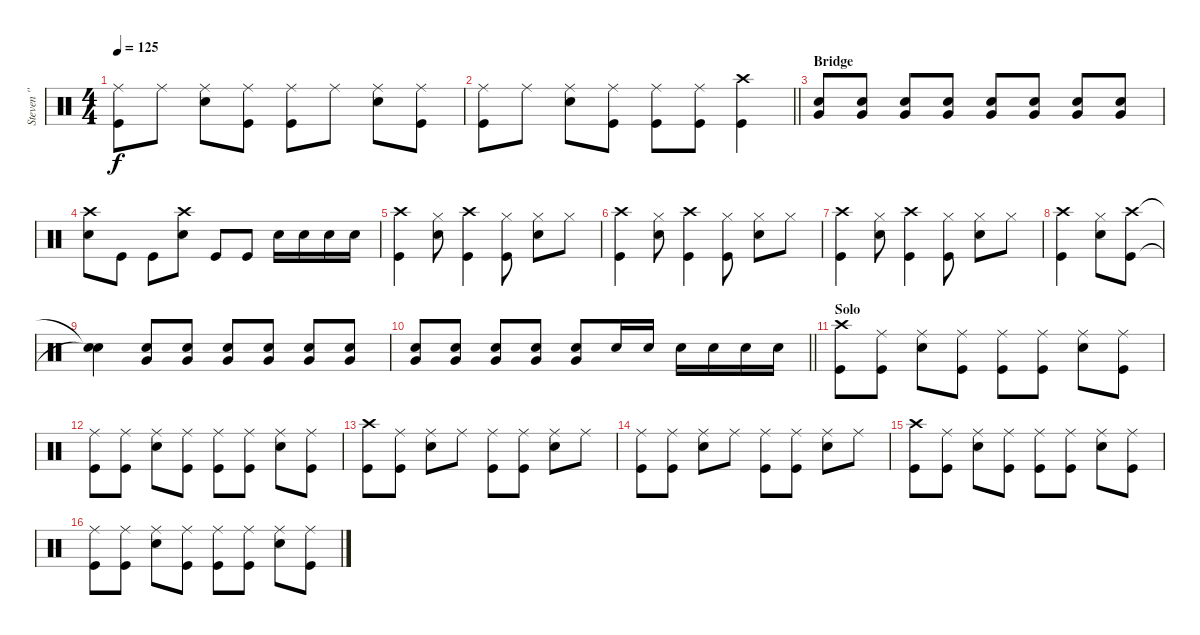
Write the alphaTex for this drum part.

\track ("Steven '' Popcorn '' Adler" "Steven '' ") {instrument percussion}
\staff {score}
\articulation defaults
\ts (4 4)
\tempo 125
\clef neutral
\ks c
("Ride (middle)" "Kick (hit)").8{dy f} "Ride (middle)".8 ("Ride (middle)" "Snare (hit) 2").8 ("Ride (middle)" "Kick (hit)").8 ("Ride (middle)" "Kick (hit)").8 "Ride (middle)".8 ("Ride (middle)" "Snare (hit) 2").8 ("Ride (middle)" "Kick (hit)").8 |
\barLineRight lightlight
("Ride (middle)" "Kick (hit)").8 "Ride (middle)".8 ("Ride (middle)" "Snare (hit) 2").8 ("Ride (middle)" "Kick (hit)").8 ("Ride (middle)" "Kick (hit)").8 ("Ride (middle)" "Kick (hit)").8 ("Crash high (hit)" "Kick (hit)").4 |
\section ("" "Bridge")
("Snare (hit) 2" "Very Low Tom (hit)").8 ("Snare (hit) 2" "Very Low Tom (hit)").8 ("Snare (hit) 2" "Very Low Tom (hit)").8 ("Snare (hit) 2" "Very Low Tom (hit)").8 ("Snare (hit) 2" "Very Low Tom (hit)").8 ("Snare (hit) 2" "Very Low Tom (hit)").8 ("Snare (hit) 2" "Very Low Tom (hit)").8 ("Snare (hit) 2" "Very Low Tom (hit)").8 |
("Crash high (hit)" "Snare (hit) 2").8 "Kick (hit)".8 "Kick (hit)".8 ("Crash high (hit)" "Snare (hit) 2").8 "Kick (hit)".8 "Kick (hit)".8 "Snare (hit) 2".16 "Snare (hit) 2".16 "Snare (hit) 2".16 "Snare (hit) 2".16 |
("Crash high (hit)" "Kick (hit)").4 ("Hi-Hat (closed)" "Snare (hit) 2").8 ("Crash high (hit)" "Kick (hit)").4 ("Hi-Hat (closed)" "Kick (hit)").8 ("Hi-Hat (closed)" "Snare (hit) 2").8 "Hi-Hat (closed)".8 |
("Crash high (hit)" "Kick (hit)").4 ("Hi-Hat (closed)" "Snare (hit) 2").8 ("Crash high (hit)" "Kick (hit)").4 ("Hi-Hat (closed)" "Kick (hit)").8 ("Hi-Hat (closed)" "Snare (hit) 2").8 "Hi-Hat (closed)".8 |
("Crash high (hit)" "Kick (hit)").4 ("Hi-Hat (closed)" "Snare (hit) 2").8 ("Crash high (hit)" "Kick (hit)").4 ("Hi-Hat (closed)" "Kick (hit)").8 ("Hi-Hat (closed)" "Snare (hit) 2").8 "Hi-Hat (closed)".8 |
("Crash high (hit)" "Kick (hit)").4 ("Hi-Hat (closed)" "Snare (hit) 2").8 ("Crash high (hit)" "Kick (hit)").8 |
("Snare (hit)"{t} "Snare (hit)"{t}).4 ("Snare (hit) 2" "Very Low Tom (hit)").8 ("Snare (hit) 2" "Very Low Tom (hit)").8 ("Snare (hit) 2" "Very Low Tom (hit)").8 ("Snare (hit) 2" "Very Low Tom (hit)").8 ("Snare (hit) 2" "Very Low Tom (hit)").8 ("Snare (hit) 2" "Very Low Tom (hit)").8 |
\barLineRight lightlight
("Snare (hit) 2" "Very Low Tom (hit)").8 ("Snare (hit) 2" "Very Low Tom (hit)").8 ("Snare (hit) 2" "Very Low Tom (hit)").8 ("Snare (hit) 2" "Very Low Tom (hit)").8 ("Snare (hit) 2" "Very Low Tom (hit)").8 "Snare (hit) 2".16 "Snare (hit) 2".16 "Snare (hit) 2".16 "Snare (hit) 2".16 "Snare (hit) 2".16 "Snare (hit) 2".16 |
\section ("" "Solo")
("Crash high (hit)" "Kick (hit)").8 ("Ride (middle)" "Kick (hit)").8 ("Ride (middle)" "Snare (hit) 2").8 ("Ride (middle)" "Kick (hit)").8 ("Ride (middle)" "Kick (hit)").8 ("Ride (middle)" "Kick (hit)").8 ("Ride (middle)" "Snare (hit) 2").8 ("Ride (middle)" "Kick (hit)").8 |
("Ride (middle)" "Kick (hit)").8 ("Ride (middle)" "Kick (hit)").8 ("Ride (middle)" "Snare (hit) 2").8 ("Ride (middle)" "Kick (hit)").8 ("Ride (middle)" "Kick (hit)").8 ("Ride (middle)" "Kick (hit)").8 ("Ride (middle)" "Snare (hit) 2").8 ("Ride (middle)" "Kick (hit)").8 |
("Crash high (hit)" "Kick (hit)").8 ("Ride (middle)" "Kick (hit)").8 ("Ride (middle)" "Snare (hit) 2").8 "Ride (middle)".8 ("Ride (middle)" "Kick (hit)").8 ("Ride (middle)" "Kick (hit)").8 ("Ride (middle)" "Snare (hit) 2").8 "Ride (middle)".8 |
("Ride (middle)" "Kick (hit)").8 ("Ride (middle)" "Kick (hit)").8 ("Ride (middle)" "Snare (hit) 2").8 "Ride (middle)".8 ("Ride (middle)" "Kick (hit)").8 ("Ride (middle)" "Kick (hit)").8 ("Ride (middle)" "Snare (hit) 2").8 "Ride (middle)".8 |
("Crash high (hit)" "Kick (hit)").8 ("Ride (middle)" "Kick (hit)").8 ("Ride (middle)" "Snare (hit) 2").8 ("Ride (middle)" "Kick (hit)").8 ("Ride (middle)" "Kick (hit)").8 ("Ride (middle)" "Kick (hit)").8 ("Ride (middle)" "Snare (hit) 2").8 ("Ride (middle)" "Kick (hit)").8 |
("Ride (middle)" "Kick (hit)").8 ("Ride (middle)" "Kick (hit)").8 ("Ride (middle)" "Snare (hit) 2").8 ("Ride (middle)" "Kick (hit)").8 ("Ride (middle)" "Kick (hit)").8 ("Ride (middle)" "Kick (hit)").8 ("Ride (middle)" "Snare (hit) 2").8 ("Ride (middle)" "Kick (hit)").8
